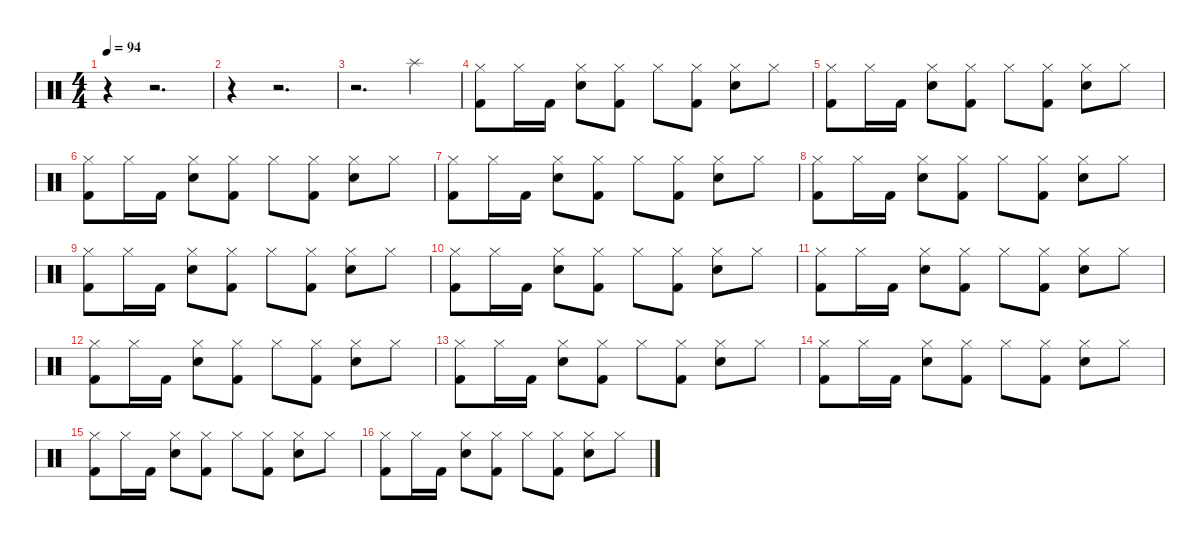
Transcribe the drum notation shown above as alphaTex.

\defaultSystemsLayout 4
\hideDynamics
\bracketExtendMode nobrackets
\singleTrackTrackNamePolicy hidden
\multiTrackTrackNamePolicy hidden
\otherSystemsTrackNameOrientation horizontal
\track ("Mike Joyce" "drm.") {instrument percussion}
\staff {score}
\articulation defaults
\ts (4 4)
\beaming (8 2 2 2 2)
\tempo 94
\clef neutral
\ks c
r.4{dy p beam Down} r.2{d beam Down} |
r.4{beam Down} r.2{d beam Down} |
r.2{d beam Down} "Splash (hit)".4{beam Down} |
("Hi-Hat (closed)" "Kick (hit) 2").8{dy f beam Down} "Hi-Hat (closed)".16{beam Down} "Kick (hit) 2".16{beam Down} ("Hi-Hat (closed)" "Snare (hit) 2").8{beam Down} ("Hi-Hat (closed)" "Kick (hit) 2").8{beam Down} "Hi-Hat (closed)".8{beam Down} ("Hi-Hat (closed)" "Kick (hit) 2").8{beam Down} ("Hi-Hat (closed)" "Snare (hit) 2").8{beam Down} "Hi-Hat (closed)".8{beam Down} |
("Hi-Hat (closed)" "Kick (hit) 2").8{beam Down} "Hi-Hat (closed)".16{beam Down} "Kick (hit) 2".16{beam Down} ("Hi-Hat (closed)" "Snare (hit) 2").8{beam Down} ("Hi-Hat (closed)" "Kick (hit) 2").8{beam Down} "Hi-Hat (closed)".8{beam Down} ("Hi-Hat (closed)" "Kick (hit) 2").8{beam Down} ("Hi-Hat (closed)" "Snare (hit) 2").8{beam Down} "Hi-Hat (closed)".8{beam Down} |
("Hi-Hat (closed)" "Kick (hit) 2").8{beam Down} "Hi-Hat (closed)".16{beam Down} "Kick (hit) 2".16{beam Down} ("Hi-Hat (closed)" "Snare (hit) 2").8{beam Down} ("Hi-Hat (closed)" "Kick (hit) 2").8{beam Down} "Hi-Hat (closed)".8{beam Down} ("Hi-Hat (closed)" "Kick (hit) 2").8{beam Down} ("Hi-Hat (closed)" "Snare (hit) 2").8{beam Down} "Hi-Hat (closed)".8{beam Down} |
("Hi-Hat (closed)" "Kick (hit) 2").8{beam Down} "Hi-Hat (closed)".16{beam Down} "Kick (hit) 2".16{beam Down} ("Hi-Hat (closed)" "Snare (hit) 2").8{beam Down} ("Hi-Hat (closed)" "Kick (hit) 2").8{beam Down} "Hi-Hat (closed)".8{beam Down} ("Hi-Hat (closed)" "Kick (hit) 2").8{beam Down} ("Hi-Hat (closed)" "Snare (hit) 2").8{beam Down} "Hi-Hat (closed)".8{beam Down} |
("Hi-Hat (closed)" "Kick (hit) 2").8{beam Down} "Hi-Hat (closed)".16{beam Down} "Kick (hit) 2".16{beam Down} ("Hi-Hat (closed)" "Snare (hit) 2").8{beam Down} ("Hi-Hat (closed)" "Kick (hit) 2").8{beam Down} "Hi-Hat (closed)".8{beam Down} ("Hi-Hat (closed)" "Kick (hit) 2").8{beam Down} ("Hi-Hat (closed)" "Snare (hit) 2").8{beam Down} "Hi-Hat (closed)".8{beam Down} |
("Hi-Hat (closed)" "Kick (hit) 2").8{beam Down} "Hi-Hat (closed)".16{beam Down} "Kick (hit) 2".16{beam Down} ("Hi-Hat (closed)" "Snare (hit) 2").8{beam Down} ("Hi-Hat (closed)" "Kick (hit) 2").8{beam Down} "Hi-Hat (closed)".8{beam Down} ("Hi-Hat (closed)" "Kick (hit) 2").8{beam Down} ("Hi-Hat (closed)" "Snare (hit) 2").8{beam Down} "Hi-Hat (closed)".8{beam Down} |
("Hi-Hat (closed)" "Kick (hit) 2").8{beam Down} "Hi-Hat (closed)".16{beam Down} "Kick (hit) 2".16{beam Down} ("Hi-Hat (closed)" "Snare (hit) 2").8{beam Down} ("Hi-Hat (closed)" "Kick (hit) 2").8{beam Down} "Hi-Hat (closed)".8{beam Down} ("Hi-Hat (closed)" "Kick (hit) 2").8{beam Down} ("Hi-Hat (closed)" "Snare (hit) 2").8{beam Down} "Hi-Hat (closed)".8{beam Down} |
("Hi-Hat (closed)" "Kick (hit) 2").8{beam Down} "Hi-Hat (closed)".16{beam Down} "Kick (hit) 2".16{beam Down} ("Hi-Hat (closed)" "Snare (hit) 2").8{beam Down} ("Hi-Hat (closed)" "Kick (hit) 2").8{beam Down} "Hi-Hat (closed)".8{beam Down} ("Hi-Hat (closed)" "Kick (hit) 2").8{beam Down} ("Hi-Hat (closed)" "Snare (hit) 2").8{beam Down} "Hi-Hat (closed)".8{beam Down} |
("Hi-Hat (closed)" "Kick (hit) 2").8{beam Down} "Hi-Hat (closed)".16{beam Down} "Kick (hit) 2".16{beam Down} ("Hi-Hat (closed)" "Snare (hit) 2").8{beam Down} ("Hi-Hat (closed)" "Kick (hit) 2").8{beam Down} "Hi-Hat (closed)".8{beam Down} ("Hi-Hat (closed)" "Kick (hit) 2").8{beam Down} ("Hi-Hat (closed)" "Snare (hit) 2").8{beam Down} "Hi-Hat (closed)".8{beam Down} |
("Hi-Hat (closed)" "Kick (hit) 2").8{beam Down} "Hi-Hat (closed)".16{beam Down} "Kick (hit) 2".16{beam Down} ("Hi-Hat (closed)" "Snare (hit) 2").8{beam Down} ("Hi-Hat (closed)" "Kick (hit) 2").8{beam Down} "Hi-Hat (closed)".8{beam Down} ("Hi-Hat (closed)" "Kick (hit) 2").8{beam Down} ("Hi-Hat (closed)" "Snare (hit) 2").8{beam Down} "Hi-Hat (closed)".8{beam Down} |
("Hi-Hat (closed)" "Kick (hit) 2").8{beam Down} "Hi-Hat (closed)".16{beam Down} "Kick (hit) 2".16{beam Down} ("Hi-Hat (closed)" "Snare (hit) 2").8{beam Down} ("Hi-Hat (closed)" "Kick (hit) 2").8{beam Down} "Hi-Hat (closed)".8{beam Down} ("Hi-Hat (closed)" "Kick (hit) 2").8{beam Down} ("Hi-Hat (closed)" "Snare (hit) 2").8{beam Down} "Hi-Hat (closed)".8{beam Down} |
("Hi-Hat (closed)" "Kick (hit) 2").8{beam Down} "Hi-Hat (closed)".16{beam Down} "Kick (hit) 2".16{beam Down} ("Hi-Hat (closed)" "Snare (hit) 2").8{beam Down} ("Hi-Hat (closed)" "Kick (hit) 2").8{beam Down} "Hi-Hat (closed)".8{beam Down} ("Hi-Hat (closed)" "Kick (hit) 2").8{beam Down} ("Hi-Hat (closed)" "Snare (hit) 2").8{beam Down} "Hi-Hat (closed)".8{beam Down} |
("Hi-Hat (closed)" "Kick (hit) 2").8{beam Down} "Hi-Hat (closed)".16{beam Down} "Kick (hit) 2".16{beam Down} ("Hi-Hat (closed)" "Snare (hit) 2").8{beam Down} ("Hi-Hat (closed)" "Kick (hit) 2").8{beam Down} "Hi-Hat (closed)".8{beam Down} ("Hi-Hat (closed)" "Kick (hit) 2").8{beam Down} ("Hi-Hat (closed)" "Snare (hit) 2").8{beam Down} "Hi-Hat (closed)".8{beam Down}
